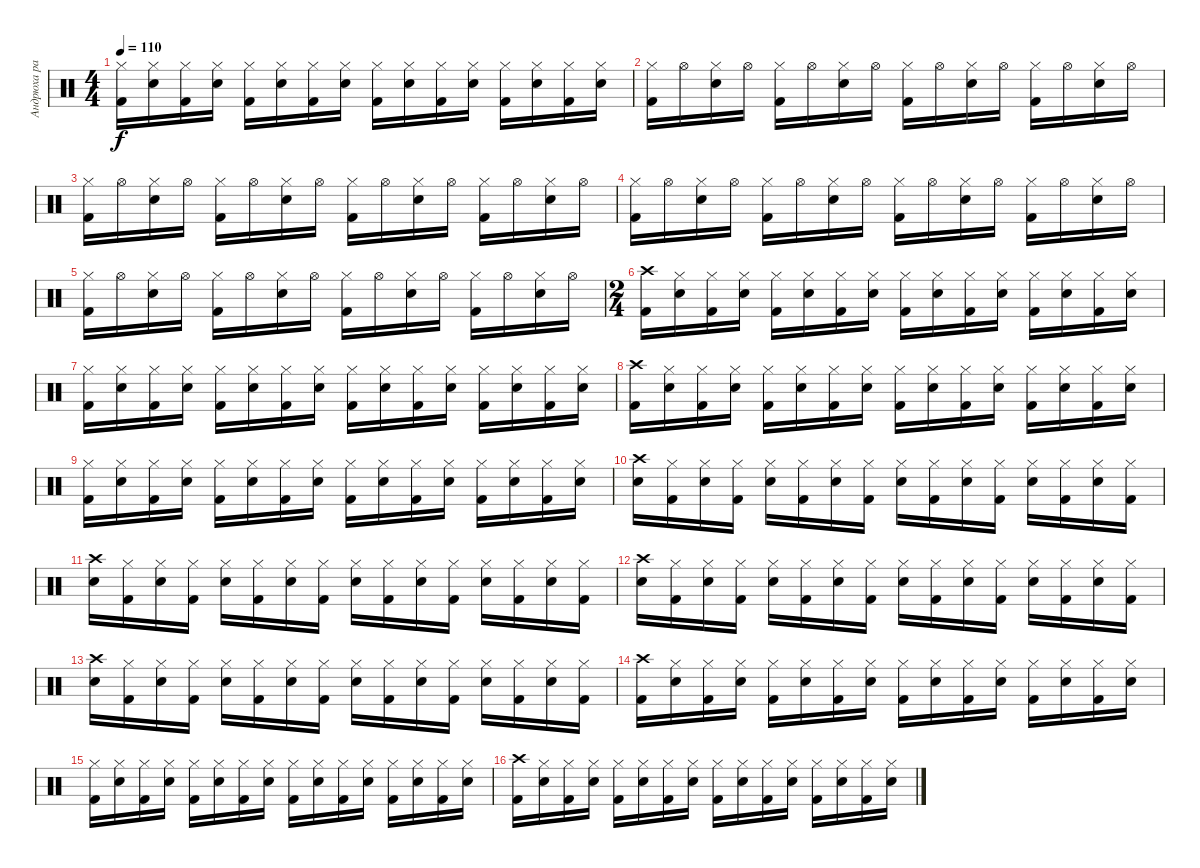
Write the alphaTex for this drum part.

\track ("Андрюха радостный" "Андрюха ра") {instrument percussion}
\staff {score}
\articulation defaults
\ts (4 4)
\tempo 110
\clef neutral
\ks c
("Hi-Hat (closed)" "Kick (hit) 2").16{dy f} ("Hi-Hat (closed)" "Electric Snare (hit)").16 ("Hi-Hat (closed)" "Kick (hit) 2").16 ("Hi-Hat (closed)" "Electric Snare (hit)").16 ("Hi-Hat (closed)" "Kick (hit) 2").16 ("Hi-Hat (closed)" "Electric Snare (hit)").16 ("Hi-Hat (closed)" "Kick (hit) 2").16 ("Hi-Hat (closed)" "Electric Snare (hit)").16 ("Hi-Hat (closed)" "Kick (hit) 2").16 ("Hi-Hat (closed)" "Electric Snare (hit)").16 ("Hi-Hat (closed)" "Kick (hit) 2").16 ("Hi-Hat (closed)" "Electric Snare (hit)").16 ("Hi-Hat (closed)" "Kick (hit) 2").16 ("Hi-Hat (closed)" "Electric Snare (hit)").16 ("Hi-Hat (closed)" "Kick (hit) 2").16 ("Hi-Hat (closed)" "Electric Snare (hit)").16 |
("Hi-Hat (closed)" "Kick (hit) 2").16 "Hi-Hat (open)".16 ("Hi-Hat (closed)" "Electric Snare (hit)").16 "Hi-Hat (open)".16 ("Hi-Hat (closed)" "Kick (hit) 2").16 "Hi-Hat (open)".16 ("Hi-Hat (closed)" "Electric Snare (hit)").16 "Hi-Hat (open)".16 ("Hi-Hat (closed)" "Kick (hit) 2").16 "Hi-Hat (open)".16 ("Hi-Hat (closed)" "Electric Snare (hit)").16 "Hi-Hat (open)".16 ("Hi-Hat (closed)" "Kick (hit) 2").16 "Hi-Hat (open)".16 ("Hi-Hat (closed)" "Electric Snare (hit)").16 "Hi-Hat (open)".16 |
("Hi-Hat (closed)" "Kick (hit) 2").16 "Hi-Hat (open)".16 ("Hi-Hat (closed)" "Electric Snare (hit)").16 "Hi-Hat (open)".16 ("Hi-Hat (closed)" "Kick (hit) 2").16 "Hi-Hat (open)".16 ("Hi-Hat (closed)" "Electric Snare (hit)").16 "Hi-Hat (open)".16 ("Hi-Hat (closed)" "Kick (hit) 2").16 "Hi-Hat (open)".16 ("Hi-Hat (closed)" "Electric Snare (hit)").16 "Hi-Hat (open)".16 ("Hi-Hat (closed)" "Kick (hit) 2").16 "Hi-Hat (open)".16 ("Hi-Hat (closed)" "Electric Snare (hit)").16 "Hi-Hat (open)".16 |
("Hi-Hat (closed)" "Kick (hit) 2").16 "Hi-Hat (open)".16 ("Hi-Hat (closed)" "Electric Snare (hit)").16 "Hi-Hat (open)".16 ("Hi-Hat (closed)" "Kick (hit) 2").16 "Hi-Hat (open)".16 ("Hi-Hat (closed)" "Electric Snare (hit)").16 "Hi-Hat (open)".16 ("Hi-Hat (closed)" "Kick (hit) 2").16 "Hi-Hat (open)".16 ("Hi-Hat (closed)" "Electric Snare (hit)").16 "Hi-Hat (open)".16 ("Hi-Hat (closed)" "Kick (hit) 2").16 "Hi-Hat (open)".16 ("Hi-Hat (closed)" "Electric Snare (hit)").16 "Hi-Hat (open)".16 |
("Hi-Hat (closed)" "Kick (hit) 2").16 "Hi-Hat (open)".16 ("Hi-Hat (closed)" "Electric Snare (hit)").16 "Hi-Hat (open)".16 ("Hi-Hat (closed)" "Kick (hit) 2").16 "Hi-Hat (open)".16 ("Hi-Hat (closed)" "Electric Snare (hit)").16 "Hi-Hat (open)".16 ("Hi-Hat (closed)" "Kick (hit) 2").16 "Hi-Hat (open)".16 ("Hi-Hat (closed)" "Electric Snare (hit)").16 "Hi-Hat (open)".16 ("Hi-Hat (closed)" "Kick (hit) 2").16 "Hi-Hat (open)".16 ("Hi-Hat (closed)" "Electric Snare (hit)").16 "Hi-Hat (open)".16 |
\ts (2 4)
("Crash high (hit)" "Kick (hit) 2").16 ("Hi-Hat (closed)" "Electric Snare (hit)").16 ("Hi-Hat (closed)" "Kick (hit) 2").16 ("Hi-Hat (closed)" "Electric Snare (hit)").16 ("Hi-Hat (closed)" "Kick (hit) 2").16 ("Hi-Hat (closed)" "Electric Snare (hit)").16 ("Hi-Hat (closed)" "Kick (hit) 2").16 ("Hi-Hat (closed)" "Electric Snare (hit)").16 ("Hi-Hat (closed)" "Kick (hit) 2").16 ("Hi-Hat (closed)" "Electric Snare (hit)").16 ("Hi-Hat (closed)" "Kick (hit) 2").16 ("Hi-Hat (closed)" "Electric Snare (hit)").16 ("Hi-Hat (closed)" "Kick (hit) 2").16 ("Hi-Hat (closed)" "Electric Snare (hit)").16 ("Hi-Hat (closed)" "Kick (hit) 2").16 ("Hi-Hat (closed)" "Electric Snare (hit)").16 |
("Hi-Hat (closed)" "Kick (hit) 2").16 ("Hi-Hat (closed)" "Electric Snare (hit)").16 ("Hi-Hat (closed)" "Kick (hit) 2").16 ("Hi-Hat (closed)" "Electric Snare (hit)").16 ("Hi-Hat (closed)" "Kick (hit) 2").16 ("Hi-Hat (closed)" "Electric Snare (hit)").16 ("Hi-Hat (closed)" "Kick (hit) 2").16 ("Hi-Hat (closed)" "Electric Snare (hit)").16 ("Hi-Hat (closed)" "Kick (hit) 2").16 ("Hi-Hat (closed)" "Electric Snare (hit)").16 ("Hi-Hat (closed)" "Kick (hit) 2").16 ("Hi-Hat (closed)" "Electric Snare (hit)").16 ("Hi-Hat (closed)" "Kick (hit) 2").16 ("Hi-Hat (closed)" "Electric Snare (hit)").16 ("Hi-Hat (closed)" "Kick (hit) 2").16 ("Hi-Hat (closed)" "Electric Snare (hit)").16 |
("Crash high (hit)" "Kick (hit) 2").16 ("Hi-Hat (closed)" "Electric Snare (hit)").16 ("Hi-Hat (closed)" "Kick (hit) 2").16 ("Hi-Hat (closed)" "Electric Snare (hit)").16 ("Hi-Hat (closed)" "Kick (hit) 2").16 ("Hi-Hat (closed)" "Electric Snare (hit)").16 ("Hi-Hat (closed)" "Kick (hit) 2").16 ("Hi-Hat (closed)" "Electric Snare (hit)").16 ("Hi-Hat (closed)" "Kick (hit) 2").16 ("Hi-Hat (closed)" "Electric Snare (hit)").16 ("Hi-Hat (closed)" "Kick (hit) 2").16 ("Hi-Hat (closed)" "Electric Snare (hit)").16 ("Hi-Hat (closed)" "Kick (hit) 2").16 ("Hi-Hat (closed)" "Electric Snare (hit)").16 ("Hi-Hat (closed)" "Kick (hit) 2").16 ("Hi-Hat (closed)" "Electric Snare (hit)").16 |
("Hi-Hat (closed)" "Kick (hit) 2").16 ("Hi-Hat (closed)" "Electric Snare (hit)").16 ("Hi-Hat (closed)" "Kick (hit) 2").16 ("Hi-Hat (closed)" "Electric Snare (hit)").16 ("Hi-Hat (closed)" "Kick (hit) 2").16 ("Hi-Hat (closed)" "Electric Snare (hit)").16 ("Hi-Hat (closed)" "Kick (hit) 2").16 ("Hi-Hat (closed)" "Electric Snare (hit)").16 ("Hi-Hat (closed)" "Kick (hit) 2").16 ("Hi-Hat (closed)" "Electric Snare (hit)").16 ("Hi-Hat (closed)" "Kick (hit) 2").16 ("Hi-Hat (closed)" "Electric Snare (hit)").16 ("Hi-Hat (closed)" "Kick (hit) 2").16 ("Hi-Hat (closed)" "Electric Snare (hit)").16 ("Hi-Hat (closed)" "Kick (hit) 2").16 ("Hi-Hat (closed)" "Electric Snare (hit)").16 |
("Crash high (hit)" "Electric Snare (hit)").16 ("Hi-Hat (closed)" "Kick (hit) 2").16 ("Hi-Hat (closed)" "Electric Snare (hit)").16 ("Hi-Hat (closed)" "Kick (hit) 2").16 ("Hi-Hat (closed)" "Electric Snare (hit)").16 ("Hi-Hat (closed)" "Kick (hit) 2").16 ("Hi-Hat (closed)" "Electric Snare (hit)").16 ("Hi-Hat (closed)" "Kick (hit) 2").16 ("Hi-Hat (closed)" "Electric Snare (hit)").16 ("Hi-Hat (closed)" "Kick (hit) 2").16 ("Hi-Hat (closed)" "Electric Snare (hit)").16 ("Hi-Hat (closed)" "Kick (hit) 2").16 ("Hi-Hat (closed)" "Electric Snare (hit)").16 ("Hi-Hat (closed)" "Kick (hit) 2").16 ("Hi-Hat (closed)" "Electric Snare (hit)").16 ("Hi-Hat (closed)" "Kick (hit) 2").16 |
("Crash high (hit)" "Electric Snare (hit)").16 ("Hi-Hat (closed)" "Kick (hit) 2").16 ("Hi-Hat (closed)" "Electric Snare (hit)").16 ("Hi-Hat (closed)" "Kick (hit) 2").16 ("Hi-Hat (closed)" "Electric Snare (hit)").16 ("Hi-Hat (closed)" "Kick (hit) 2").16 ("Hi-Hat (closed)" "Electric Snare (hit)").16 ("Hi-Hat (closed)" "Kick (hit) 2").16 ("Hi-Hat (closed)" "Electric Snare (hit)").16 ("Hi-Hat (closed)" "Kick (hit) 2").16 ("Hi-Hat (closed)" "Electric Snare (hit)").16 ("Hi-Hat (closed)" "Kick (hit) 2").16 ("Hi-Hat (closed)" "Electric Snare (hit)").16 ("Hi-Hat (closed)" "Kick (hit) 2").16 ("Hi-Hat (closed)" "Electric Snare (hit)").16 ("Hi-Hat (closed)" "Kick (hit) 2").16 |
("Crash high (hit)" "Electric Snare (hit)").16 ("Hi-Hat (closed)" "Kick (hit) 2").16 ("Hi-Hat (closed)" "Electric Snare (hit)").16 ("Hi-Hat (closed)" "Kick (hit) 2").16 ("Hi-Hat (closed)" "Electric Snare (hit)").16 ("Hi-Hat (closed)" "Kick (hit) 2").16 ("Hi-Hat (closed)" "Electric Snare (hit)").16 ("Hi-Hat (closed)" "Kick (hit) 2").16 ("Hi-Hat (closed)" "Electric Snare (hit)").16 ("Hi-Hat (closed)" "Kick (hit) 2").16 ("Hi-Hat (closed)" "Electric Snare (hit)").16 ("Hi-Hat (closed)" "Kick (hit) 2").16 ("Hi-Hat (closed)" "Electric Snare (hit)").16 ("Hi-Hat (closed)" "Kick (hit) 2").16 ("Hi-Hat (closed)" "Electric Snare (hit)").16 ("Hi-Hat (closed)" "Kick (hit) 2").16 |
("Crash high (hit)" "Electric Snare (hit)").16 ("Hi-Hat (closed)" "Kick (hit) 2").16 ("Hi-Hat (closed)" "Electric Snare (hit)").16 ("Hi-Hat (closed)" "Kick (hit) 2").16 ("Hi-Hat (closed)" "Electric Snare (hit)").16 ("Hi-Hat (closed)" "Kick (hit) 2").16 ("Hi-Hat (closed)" "Electric Snare (hit)").16 ("Hi-Hat (closed)" "Kick (hit) 2").16 ("Hi-Hat (closed)" "Electric Snare (hit)").16 ("Hi-Hat (closed)" "Kick (hit) 2").16 ("Hi-Hat (closed)" "Electric Snare (hit)").16 ("Hi-Hat (closed)" "Kick (hit) 2").16 ("Hi-Hat (closed)" "Electric Snare (hit)").16 ("Hi-Hat (closed)" "Kick (hit) 2").16 ("Hi-Hat (closed)" "Electric Snare (hit)").16 ("Hi-Hat (closed)" "Kick (hit) 2").16 |
("Crash high (hit)" "Kick (hit) 2").16 ("Hi-Hat (closed)" "Electric Snare (hit)").16 ("Hi-Hat (closed)" "Kick (hit) 2").16 ("Hi-Hat (closed)" "Electric Snare (hit)").16 ("Hi-Hat (closed)" "Kick (hit) 2").16 ("Hi-Hat (closed)" "Electric Snare (hit)").16 ("Hi-Hat (closed)" "Kick (hit) 2").16 ("Hi-Hat (closed)" "Electric Snare (hit)").16 ("Hi-Hat (closed)" "Kick (hit) 2").16 ("Hi-Hat (closed)" "Electric Snare (hit)").16 ("Hi-Hat (closed)" "Kick (hit) 2").16 ("Hi-Hat (closed)" "Electric Snare (hit)").16 ("Hi-Hat (closed)" "Kick (hit) 2").16 ("Hi-Hat (closed)" "Electric Snare (hit)").16 ("Hi-Hat (closed)" "Kick (hit) 2").16 ("Hi-Hat (closed)" "Electric Snare (hit)").16 |
("Hi-Hat (closed)" "Kick (hit) 2").16 ("Hi-Hat (closed)" "Electric Snare (hit)").16 ("Hi-Hat (closed)" "Kick (hit) 2").16 ("Hi-Hat (closed)" "Electric Snare (hit)").16 ("Hi-Hat (closed)" "Kick (hit) 2").16 ("Hi-Hat (closed)" "Electric Snare (hit)").16 ("Hi-Hat (closed)" "Kick (hit) 2").16 ("Hi-Hat (closed)" "Electric Snare (hit)").16 ("Hi-Hat (closed)" "Kick (hit) 2").16 ("Hi-Hat (closed)" "Electric Snare (hit)").16 ("Hi-Hat (closed)" "Kick (hit) 2").16 ("Hi-Hat (closed)" "Electric Snare (hit)").16 ("Hi-Hat (closed)" "Kick (hit) 2").16 ("Hi-Hat (closed)" "Electric Snare (hit)").16 ("Hi-Hat (closed)" "Kick (hit) 2").16 ("Hi-Hat (closed)" "Electric Snare (hit)").16 |
("Crash high (hit)" "Kick (hit) 2").16 ("Hi-Hat (closed)" "Electric Snare (hit)").16 ("Hi-Hat (closed)" "Kick (hit) 2").16 ("Hi-Hat (closed)" "Electric Snare (hit)").16 ("Hi-Hat (closed)" "Kick (hit) 2").16 ("Hi-Hat (closed)" "Electric Snare (hit)").16 ("Hi-Hat (closed)" "Kick (hit) 2").16 ("Hi-Hat (closed)" "Electric Snare (hit)").16 ("Hi-Hat (closed)" "Kick (hit) 2").16 ("Hi-Hat (closed)" "Electric Snare (hit)").16 ("Hi-Hat (closed)" "Kick (hit) 2").16 ("Hi-Hat (closed)" "Electric Snare (hit)").16 ("Hi-Hat (closed)" "Kick (hit) 2").16 ("Hi-Hat (closed)" "Electric Snare (hit)").16 ("Hi-Hat (closed)" "Kick (hit) 2").16 ("Hi-Hat (closed)" "Electric Snare (hit)").16
